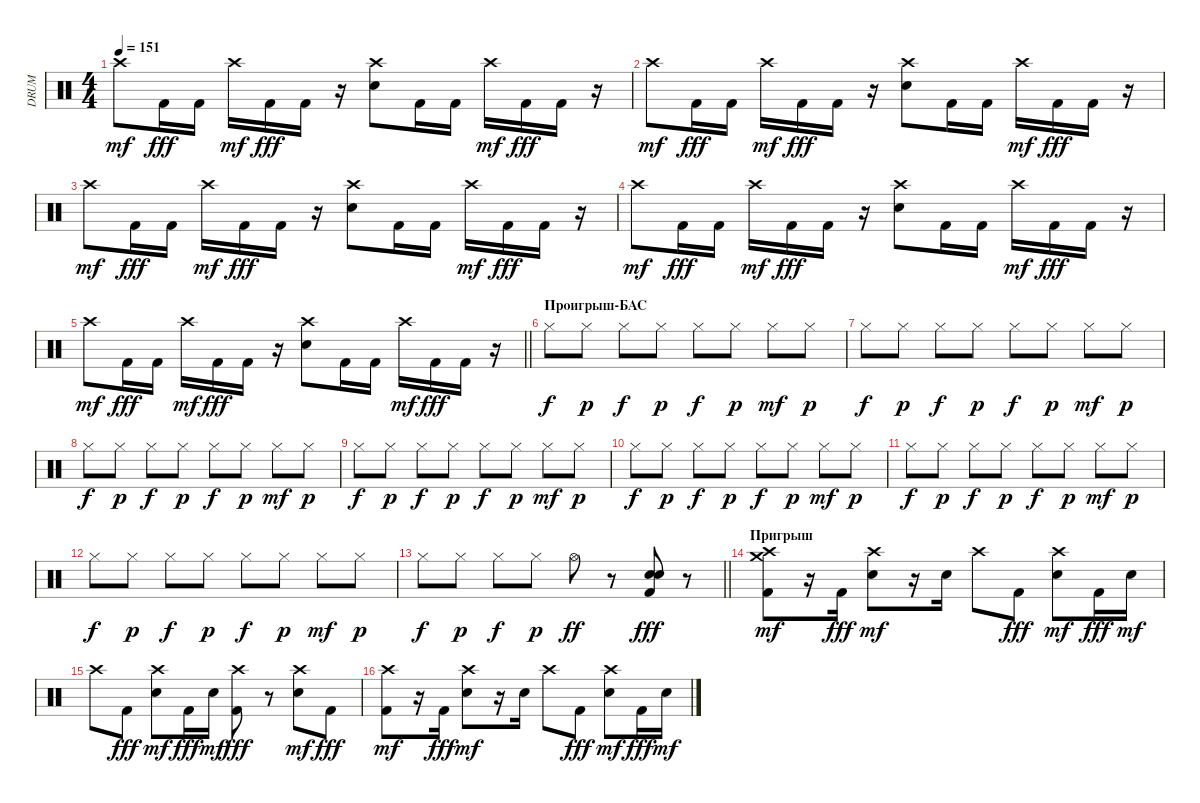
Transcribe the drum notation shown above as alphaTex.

\track ("DRUM" "DRUM") {instrument percussion}
\staff {score}
\articulation defaults
\ts (4 4)
\tempo 151
\clef neutral
\ks c "Crash high (hit)".8{dy mf} "Kick (hit) 2".16{dy fff} "Kick (hit) 2".16 "Crash high (hit)".16{dy mf} "Kick (hit) 2".16{dy fff} "Kick (hit) 2".16
r.16 ("Crash high (hit)" "Electric Snare (hit)").8 "Kick (hit) 2".16 "Kick (hit) 2".16 "Crash high (hit)".16{dy mf} "Kick (hit) 2".16{dy fff} "Kick (hit) 2".16 r.16 |
"Crash high (hit)".8{dy mf} "Kick (hit) 2".16{dy fff} "Kick (hit) 2".16 "Crash high (hit)".16{dy mf} "Kick (hit) 2".16{dy fff} "Kick (hit) 2".16 r.16 ("Crash high (hit)" "Electric Snare (hit)").8 "Kick (hit) 2".16 "Kick (hit) 2".16 "Crash high (hit)".16{dy mf} "Kick (hit) 2".16{dy fff} "Kick (hit) 2".16 r.16 |
"Crash high (hit)".8{dy mf} "Kick (hit) 2".16{dy fff} "Kick (hit) 2".16 "Crash high (hit)".16{dy mf} "Kick (hit) 2".16{dy fff} "Kick (hit) 2".16 r.16 ("Crash high (hit)" "Electric Snare (hit)").8 "Kick (hit) 2".16 "Kick (hit) 2".16 "Crash high (hit)".16{dy mf} "Kick (hit) 2".16{dy fff} "Kick (hit) 2".16 r.16 |
"Crash high (hit)".8{dy mf} "Kick (hit) 2".16{dy fff} "Kick (hit) 2".16 "Crash high (hit)".16{dy mf} "Kick (hit) 2".16{dy fff} "Kick (hit) 2".16 r.16 ("Crash high (hit)" "Electric Snare (hit)").8 "Kick (hit) 2".16 "Kick (hit) 2".16 "Crash high (hit)".16{dy mf} "Kick (hit) 2".16{dy fff} "Kick (hit) 2".16 r.16 |
\barLineRight lightlight "Crash high (hit)".8{dy mf} "Kick (hit) 2".16{dy fff} "Kick (hit) 2".16 "Crash high (hit)".16{dy mf} "Kick (hit) 2".16{dy fff} "Kick (hit) 2".16
r.16 ("Crash high (hit)" "Electric Snare (hit)").8 "Kick (hit) 2".16 "Kick (hit) 2".16 "Crash high (hit)".16{dy mf} "Kick (hit) 2".16{dy fff} "Kick (hit) 2".16 r.16 |
\section ("" "Проигрыш-БАС")
"Hi-Hat (closed)".8{dy f} "Hi-Hat (closed)".8{dy p} "Hi-Hat (closed)".8{dy f} "Hi-Hat (closed)".8{dy p} "Hi-Hat (closed)".8{dy f} "Hi-Hat (closed)".8{dy p} "Hi-Hat (closed)".8{dy mf} "Hi-Hat (closed)".8{dy p} |
"Hi-Hat (closed)".8{dy f} "Hi-Hat (closed)".8{dy p} "Hi-Hat (closed)".8{dy f} "Hi-Hat (closed)".8{dy p} "Hi-Hat (closed)".8{dy f} "Hi-Hat (closed)".8{dy p} "Hi-Hat (closed)".8{dy mf} "Hi-Hat (closed)".8{dy p} |
"Hi-Hat (closed)".8{dy f} "Hi-Hat (closed)".8{dy p} "Hi-Hat (closed)".8{dy f} "Hi-Hat (closed)".8{dy p} "Hi-Hat (closed)".8{dy f} "Hi-Hat (closed)".8{dy p} "Hi-Hat (closed)".8{dy mf} "Hi-Hat (closed)".8{dy p} |
"Hi-Hat (closed)".8{dy f} "Hi-Hat (closed)".8{dy p} "Hi-Hat (closed)".8{dy f} "Hi-Hat (closed)".8{dy p} "Hi-Hat (closed)".8{dy f} "Hi-Hat (closed)".8{dy p} "Hi-Hat (closed)".8{dy mf} "Hi-Hat (closed)".8{dy p} |
"Hi-Hat (closed)".8{dy f} "Hi-Hat (closed)".8{dy p} "Hi-Hat (closed)".8{dy f} "Hi-Hat (closed)".8{dy p} "Hi-Hat (closed)".8{dy f} "Hi-Hat (closed)".8{dy p} "Hi-Hat (closed)".8{dy mf} "Hi-Hat (closed)".8{dy p} |
"Hi-Hat (closed)".8{dy f} "Hi-Hat (closed)".8{dy p} "Hi-Hat (closed)".8{dy f} "Hi-Hat (closed)".8{dy p} "Hi-Hat (closed)".8{dy f} "Hi-Hat (closed)".8{dy p} "Hi-Hat (closed)".8{dy mf} "Hi-Hat (closed)".8{dy p} |
"Hi-Hat (closed)".8{dy f} "Hi-Hat (closed)".8{dy p} "Hi-Hat (closed)".8{dy f} "Hi-Hat (closed)".8{dy p} "Hi-Hat (closed)".8{dy f} "Hi-Hat (closed)".8{dy p} "Hi-Hat (closed)".8{dy mf} "Hi-Hat (closed)".8{dy p} |
\barLineRight lightlight "Hi-Hat (closed)".8{dy f} "Hi-Hat (closed)".8{dy p} "Hi-Hat (closed)".8{dy f} "Hi-Hat (closed)".8{dy p} "Hi-Hat (open)".8{dy ff}
r.8 ("Snare (hit) 2" "Electric Snare (hit)" "Kick (hit) 2").8{dy fff} r.8 |
\section ("" "Пригрыш")
("Kick (hit) 2" "Crash high (hit)" "Crash medium (hit)").8{dy mf} r.16 "Kick (hit) 2".16{dy fff} ("Electric Snare (hit)" "Crash high (hit)").8{dy mf} r.16 "Electric Snare (hit)".16 "Crash high (hit)".8 "Kick (hit) 2".8{dy fff} ("Electric Snare (hit)" "Crash high (hit)").8{dy mf} "Kick (hit) 2".16{dy fff} "Electric Snare (hit)".16{dy mf} |
"Crash high (hit)".8 "Kick (hit) 2".8{dy fff} ("Electric Snare (hit)" "Crash high (hit)").8{dy mf} "Kick (hit) 2".16{dy fff} "Electric Snare (hit)".16{dy mf} ("Crash high (hit)" "Kick (hit) 2").8{dy fff} r.8 ("Electric Snare (hit)" "Crash high (hit)").8{dy mf} "Kick (hit) 2".8{dy fff} |
("Kick (hit) 2" "Crash high (hit)").8{dy mf} r.16 "Kick (hit) 2".16{dy fff} ("Electric Snare (hit)" "Crash high (hit)").8{dy mf} r.16 "Electric Snare (hit)".16 "Crash high (hit)".8 "Kick (hit) 2".8{dy fff} ("Electric Snare (hit)" "Crash high (hit)").8{dy mf} "Kick (hit) 2".16{dy fff} "Electric Snare (hit)".16{dy mf}
